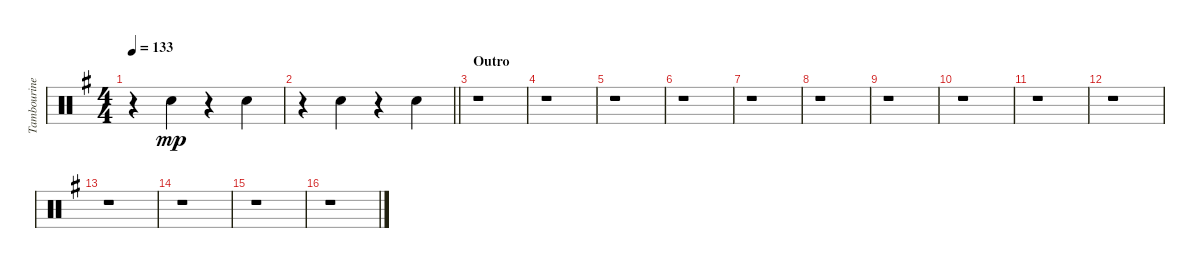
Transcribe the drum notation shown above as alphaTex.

\track ("Tambourine/Claps" "Tambourine") {instrument percussion}
\staff {score}
\articulation defaults
\ts (4 4)
\tempo 133
\clef neutral
\ks g
r.4{dy mp} "Hand Clap (hit)".4 r.4 "Hand Clap (hit)".4 |
\barLineRight lightlight
r.4 "Hand Clap (hit)".4 r.4 "Hand Clap (hit)".4 |
\section ("" "Outro")
r.1 |
r.1 |
r.1 |
r.1 |
r.1 |
r.1 |
r.1 |
r.1 |
r.1 |
r.1 |
r.1 |
r.1 |
r.1 |
r.1
